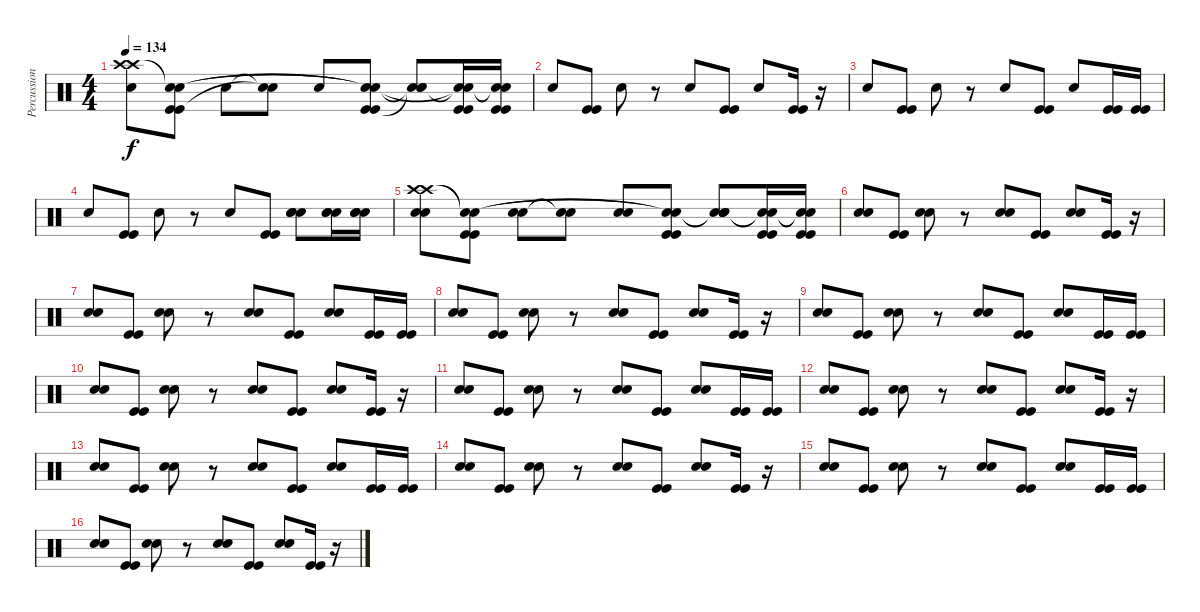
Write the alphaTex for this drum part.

\track ("Percussion (Rico)" "Percussion") {instrument percussion}
\staff {score}
\articulation defaults
\ts (4 4)
\tempo 134
\clef neutral
\ks c
("Electric Snare (hit)" "Crash high (hit)" "Crash high (hit)").8{dy f} ("Kick (hit)" "Kick (hit)" "Snare (hit)"{t} "Snare (hit)").8 "Electric Snare (hit)".8 ("Snare (hit)"{t} "Snare (hit)"{t}).8 "Electric Snare (hit)".8 ("Kick (hit)" "Kick (hit)" "Snare (hit)"{t} "Snare (hit)"{t}).8 ("Electric Snare (hit)" "Snare (hit)"{t} "Snare (hit)"{t}).8 ("Kick (hit)" "Kick (hit)" "Snare (hit)"{t} "Snare (hit)"{t}).16 ("Kick (hit)" "Kick (hit)" "Snare (hit)"{t} "Snare (hit)"{t}).16 |
"Electric Snare (hit)".8 ("Kick (hit)" "Kick (hit)").8 "Electric Snare (hit)".8 r.8 "Electric Snare (hit)".8 ("Kick (hit)" "Kick (hit)").8 "Electric Snare (hit)".8 ("Kick (hit)" "Kick (hit)").16 r.16 |
"Electric Snare (hit)".8 ("Kick (hit)" "Kick (hit)").8 "Electric Snare (hit)".8 r.8 "Electric Snare (hit)".8 ("Kick (hit)" "Kick (hit)").8 "Electric Snare (hit)".8 ("Kick (hit)" "Kick (hit)").16 ("Kick (hit)" "Kick (hit)").16 |
"Electric Snare (hit)".8 ("Kick (hit)" "Kick (hit)").8 "Electric Snare (hit)".8 r.8 "Electric Snare (hit)".8 ("Kick (hit)" "Kick (hit)").8 ("Electric Snare (hit)" "Electric Snare (hit)" "Electric Snare (hit)").8 ("Electric Snare (hit)" "Electric Snare (hit)" "Electric Snare (hit)").16 ("Electric Snare (hit)" "Electric Snare (hit)" "Electric Snare (hit)").16 |
("Electric Snare (hit)" "Electric Snare (hit)" "Crash high (hit)" "Crash high (hit)").8 ("Kick (hit)" "Kick (hit)" "Snare (hit)"{t} "Snare (hit)"{t}).8 ("Electric Snare (hit)" "Electric Snare (hit)").8 ("Snare (hit)"{t} "Snare (hit)"{t}).8 ("Electric Snare (hit)" "Electric Snare (hit)").8 ("Kick (hit)" "Kick (hit)" "Snare (hit)"{t} "Snare (hit)"{t}).8 ("Electric Snare (hit)" "Electric Snare (hit)" "Snare (hit)"{t} "Snare (hit)"{t}).8 ("Kick (hit)" "Kick (hit)" "Snare (hit)"{t} "Snare (hit)"{t}).16 ("Kick (hit)" "Kick (hit)" "Snare (hit)"{t} "Snare (hit)"{t}).16 |
("Electric Snare (hit)" "Electric Snare (hit)").8 ("Kick (hit)" "Kick (hit)").8 ("Electric Snare (hit)" "Electric Snare (hit)").8 r.8 ("Electric Snare (hit)" "Electric Snare (hit)").8 ("Kick (hit)" "Kick (hit)").8 ("Electric Snare (hit)" "Electric Snare (hit)").8 ("Kick (hit)" "Kick (hit)").16 r.16 |
("Electric Snare (hit)" "Electric Snare (hit)").8 ("Kick (hit)" "Kick (hit)").8 ("Electric Snare (hit)" "Electric Snare (hit)").8 r.8 ("Electric Snare (hit)" "Electric Snare (hit)").8 ("Kick (hit)" "Kick (hit)").8 ("Electric Snare (hit)" "Electric Snare (hit)").8 ("Kick (hit)" "Kick (hit)").16 ("Kick (hit)" "Kick (hit)").16 |
("Electric Snare (hit)" "Electric Snare (hit)").8 ("Kick (hit)" "Kick (hit)").8 ("Electric Snare (hit)" "Electric Snare (hit)").8 r.8 ("Electric Snare (hit)" "Electric Snare (hit)").8 ("Kick (hit)" "Kick (hit)").8 ("Electric Snare (hit)" "Electric Snare (hit)").8 ("Kick (hit)" "Kick (hit)").16 r.16 |
("Electric Snare (hit)" "Electric Snare (hit)").8 ("Kick (hit)" "Kick (hit)").8 ("Electric Snare (hit)" "Electric Snare (hit)").8 r.8 ("Electric Snare (hit)" "Electric Snare (hit)").8 ("Kick (hit)" "Kick (hit)").8 ("Electric Snare (hit)" "Electric Snare (hit)").8 ("Kick (hit)" "Kick (hit)").16 ("Kick (hit)" "Kick (hit)").16 |
("Electric Snare (hit)" "Electric Snare (hit)").8 ("Kick (hit)" "Kick (hit)").8 ("Electric Snare (hit)" "Electric Snare (hit)").8 r.8 ("Electric Snare (hit)" "Electric Snare (hit)").8 ("Kick (hit)" "Kick (hit)").8 ("Electric Snare (hit)" "Electric Snare (hit)").8 ("Kick (hit)" "Kick (hit)").16 r.16 |
("Electric Snare (hit)" "Electric Snare (hit)").8 ("Kick (hit)" "Kick (hit)").8 ("Electric Snare (hit)" "Electric Snare (hit)").8 r.8 ("Electric Snare (hit)" "Electric Snare (hit)").8 ("Kick (hit)" "Kick (hit)").8 ("Electric Snare (hit)" "Electric Snare (hit)").8 ("Kick (hit)" "Kick (hit)").16 ("Kick (hit)" "Kick (hit)").16 |
("Electric Snare (hit)" "Electric Snare (hit)").8 ("Kick (hit)" "Kick (hit)").8 ("Electric Snare (hit)" "Electric Snare (hit)").8 r.8 ("Electric Snare (hit)" "Electric Snare (hit)").8 ("Kick (hit)" "Kick (hit)").8 ("Electric Snare (hit)" "Electric Snare (hit)").8 ("Kick (hit)" "Kick (hit)").16 r.16 |
("Electric Snare (hit)" "Electric Snare (hit)").8 ("Kick (hit)" "Kick (hit)").8 ("Electric Snare (hit)" "Electric Snare (hit)").8 r.8 ("Electric Snare (hit)" "Electric Snare (hit)").8 ("Kick (hit)" "Kick (hit)").8 ("Electric Snare (hit)" "Electric Snare (hit)").8 ("Kick (hit)" "Kick (hit)").16 ("Kick (hit)" "Kick (hit)").16 |
("Electric Snare (hit)" "Electric Snare (hit)").8 ("Kick (hit)" "Kick (hit)").8 ("Electric Snare (hit)" "Electric Snare (hit)").8 r.8 ("Electric Snare (hit)" "Electric Snare (hit)").8 ("Kick (hit)" "Kick (hit)").8 ("Electric Snare (hit)" "Electric Snare (hit)").8 ("Kick (hit)" "Kick (hit)").16 r.16 |
("Electric Snare (hit)" "Electric Snare (hit)").8 ("Kick (hit)" "Kick (hit)").8 ("Electric Snare (hit)" "Electric Snare (hit)").8 r.8 ("Electric Snare (hit)" "Electric Snare (hit)").8 ("Kick (hit)" "Kick (hit)").8 ("Electric Snare (hit)" "Electric Snare (hit)").8 ("Kick (hit)" "Kick (hit)").16 ("Kick (hit)" "Kick (hit)").16 |
("Electric Snare (hit)" "Electric Snare (hit)").8 ("Kick (hit)" "Kick (hit)").8 ("Electric Snare (hit)" "Electric Snare (hit)").8 r.8 ("Electric Snare (hit)" "Electric Snare (hit)").8 ("Kick (hit)" "Kick (hit)").8 ("Electric Snare (hit)" "Electric Snare (hit)").8 ("Kick (hit)" "Kick (hit)").16 r.16
